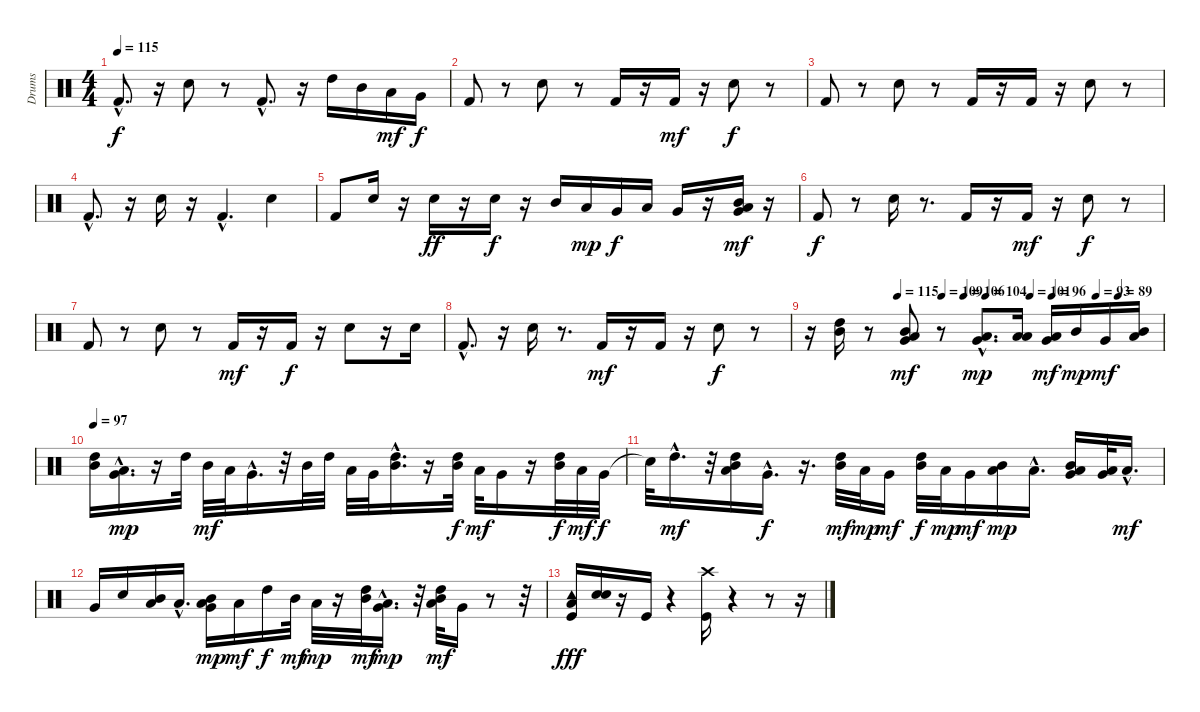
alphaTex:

\track ("Drums" "Drums") {instrument percussion}
\staff {score}
\articulation defaults
\ts (4 4)
\tempo 115
\clef neutral
\ks c "Kick (hit) 2"{hac}.8{d dy f}
r.16 "Electric Snare (hit)".8 r.8 "Kick (hit) 2"{hac}.8{d} r.16 "High Tom (hit)".16 "Mid Tom (hit)".16 "Low Tom (hit)".16{dy mf} "Very Low Tom (hit)".16{dy f} |
"Kick (hit) 2".8 r.8 "Electric Snare (hit)".8 r.8 "Kick (hit) 2".16 r.16 "Kick (hit) 2".16{dy mf} r.16 "Electric Snare (hit)".8{dy f} r.8 |
"Kick (hit) 2".8 r.8 "Electric Snare (hit)".8 r.8 "Kick (hit) 2".16 r.16 "Kick (hit) 2".16 r.16 "Electric Snare (hit)".8 r.8 |
"Kick (hit) 2"{hac}.8{d} r.16 "Electric Snare (hit)".16 r.16 "Kick (hit) 2"{hac}.4{d} "Electric Snare (hit)".4 |
"Kick (hit) 2".8 "Electric Snare (hit)".16 r.16 "Electric Snare (hit)".16{dy ff} r.16 "Electric Snare (hit)".16{dy f} r.16 "Mid Tom (hit)".16 "Low Tom (hit)".16{dy mp} "Very Low Tom (hit)".16{dy f} "Low Tom (hit)".16 "Very Low Tom (hit)".16 r.16 ("Very Low Tom (hit)" "Mid Tom (hit)" "Low Tom (hit)").16{dy mf} r.16 |
"Kick (hit) 2".8{dy f} r.8 "Electric Snare (hit)".16 r.8{d} "Kick (hit) 2".16 r.16 "Kick (hit) 2".16{dy mf} r.16 "Electric Snare (hit)".8{dy f} r.8 |
"Kick (hit) 2".8 r.8 "Electric Snare (hit)".8 r.8 "Kick (hit) 2".16{dy mf} r.16 "Kick (hit) 2".16{dy f} r.16 "Electric Snare (hit)".8 r.16 "Electric Snare (hit)".16 |
"Kick (hit) 2"{hac}.8{d} r.16 "Electric Snare (hit)".16 r.8{d} "Kick (hit) 2".16{dy mf} r.16 "Kick (hit) 2".16 r.16 "Electric Snare (hit)".8{dy f} r.8 |
\tempo (115 0.25)
\tempo (109 0.375)
\tempo (106 0.4375)
\tempo (104 0.5)
\tempo (101 0.625)
\tempo (96 0.6875)
\tempo (93 0.8125)
\tempo (89 0.875)
r.16 ("High Tom (hit)" "Mid Tom (hit)").16 r.8 ("Very Low Tom (hit)" "Mid Tom (hit)" "Low Tom (hit)").8{dy mf} r.8 ("Very Low Tom (hit)"{hac} "Low Tom (hit)"{hac}).8{d dy mp} ("Low Floor Tom (hit)" "Low Tom (hit)").16 ("Very Low Tom (hit)" "Low Tom (hit)").16{dy mf} "Mid Tom (hit)".16{dy mp} "Very Low Tom (hit)".16{dy mf} ("Low Tom (hit)" "Mid Tom (hit)").16 |
\tempo 97
("High Tom (hit)" "Mid Tom (hit)").16 ("Low Tom (hit)"{hac} "Very Low Tom (hit)"{hac}).16{d dy mp} r.16 "High Tom (hit)".32 "Mid Tom (hit)".32{dy mf} "Low Tom (hit)".32 "Very Low Tom (hit)"{hac}.16{d} r.32 "Mid Tom (hit)".32 "High Tom (hit)".32 "Low Tom (hit)".32 "Very Low Tom (hit)".32 ("High Tom (hit)"{hac} "Mid Tom (hit)"{hac}).16{d} r.16 ("High Tom (hit)" "Mid Tom (hit)").32{dy f} "Low Tom (hit)".32{dy mf} "Very Low Tom (hit)".16 r.16 ("High Tom (hit)" "Mid Tom (hit)").32{dy f} "Low Tom (hit)".32{dy mf} "Very Low Tom (hit)".32{dy f} |
"Snare (hit)"{t}.32 "High Tom (hit)"{hac}.16{d dy mf} r.32 ("High Tom (hit)" "Mid Tom (hit)" "Low Tom (hit)").16 "Very Low Tom (hit)"{hac}.16{d dy f} r.16{d} ("High Tom (hit)" "Mid Tom (hit)").32{dy mf} "Low Tom (hit)".32{dy mp} "Very Low Tom (hit)".16{dy mf} ("High Tom (hit)" "Mid Tom (hit)").32{dy f} "Low Tom (hit)".32{dy mp} "Very Low Tom (hit)".16{dy mf} ("Low Tom (hit)" "Mid Tom (hit)").16{dy mp} "Low Floor Tom (hit)"{hac}.16{d} ("Low Tom (hit)" "Very Low Tom (hit)" "Mid Tom (hit)").16 ("Low Tom (hit)" "Very Low Tom (hit)").32 "Low Floor Tom (hit)"{hac}.16{d dy mf} |
"Very Low Tom (hit)".16 "Electric Snare (hit)".16 ("Low Tom (hit)" "Mid Tom (hit)").16 "Low Floor Tom (hit)"{hac}.16{d} ("Mid Tom (hit)" "Very Low Tom (hit)" "Low Tom (hit)").16{dy mp} "Low Floor Tom (hit)".16{dy mf} "High Tom (hit)".16{dy f} "Mid Tom (hit)".32{dy mf} "Low Tom (hit)".32{dy mp} r.16 ("High Tom (hit)" "Mid Tom (hit)").32{dy mf} ("Low Tom (hit)"{hac} "Very Low Tom (hit)"{hac}).16{d dy mp} r.32 ("High Tom (hit)" "Mid Tom (hit)" "Low Tom (hit)").32{dy mf} "Very Low Tom (hit)".16 r.8 r.32 |
("Tambourine (hit)" "Low Tom (hit)" "Kick (hit)").16{dy fff} ("Electric Snare (hit)" "Electric Snare (hit)").16 r.16 "Kick (hit)".16 r.4 ("Crash high (hit)" "Kick (hit)").16 r.4 r.8 r.16
